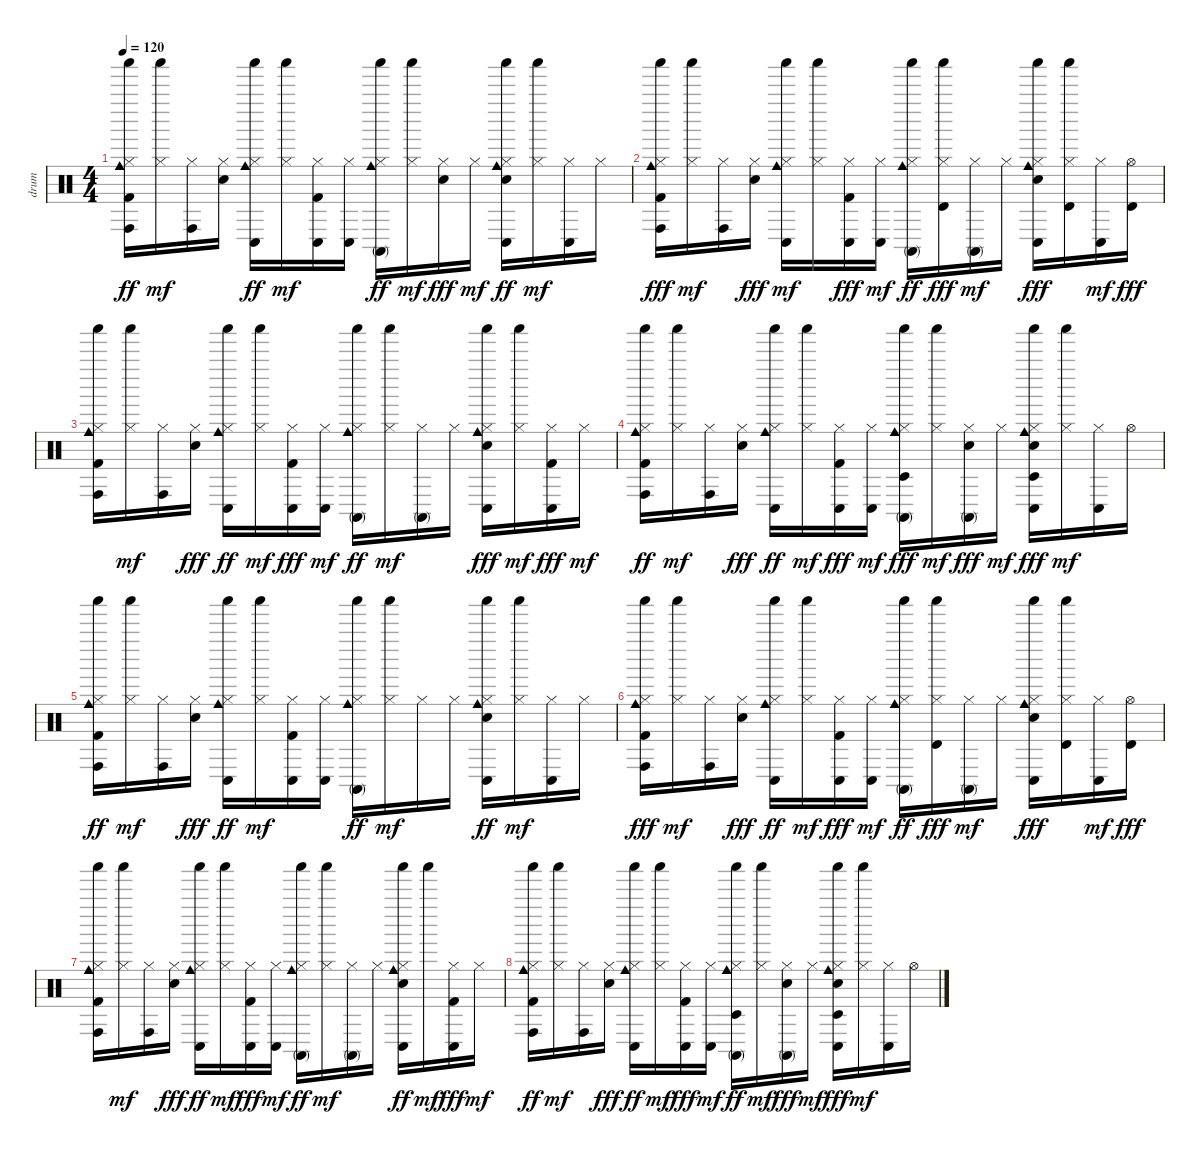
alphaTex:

\track ("drum" "drum") {instrument percussion}
\staff {score}
\articulation defaults
\ts (4 4)
\tempo 120
\clef neutral
\ks c
("Conga high (hit)" "Shaker (hit)" "Cowbell medium (hit)" "Kick (hit) 2" "Hi-Hat (closed)").16{dy ff} ("Shaker (hit)" "Hi-Hat (closed)").16{dy mf} ("Conga high (hit)" "Hi-Hat (closed)").16 ("Electric Snare (hit)" "Hi-Hat (closed)").16 ("Conga low (hit)" "Cowbell medium (hit)" "Shaker (hit)" "Hi-Hat (closed)").16{dy ff} ("Shaker (hit)" "Hi-Hat (closed)").16{dy mf} ("Conga low (hit)" "Kick (hit) 2" "Hi-Hat (closed)").16 ("Conga low (hit)" "Hi-Hat (closed)").16 ("Conga high (mute)" "Cowbell medium (hit)" "Shaker (hit)" "Hi-Hat (closed)").16{dy ff} ("Shaker (hit)" "Hi-Hat (closed)").16{dy mf} ("Hi-Hat (closed)" "Electric Snare (hit)").16{dy fff} "Hi-Hat (closed)".16{dy mf} ("Conga low (hit)" "Shaker (hit)" "Cowbell medium (hit)" "Electric Snare (hit)" "Hi-Hat (closed)").16{dy ff} ("Shaker (hit)" "Hi-Hat (closed)").16{dy mf} ("Conga low (hit)" "Hi-Hat (closed)").16 "Hi-Hat (closed)".16 |
("Conga high (hit)" "Shaker (hit)" "Cowbell medium (hit)" "Hi-Hat (closed)" "Kick (hit) 2").16{dy fff} ("Shaker (hit)" "Hi-Hat (closed)").16{dy mf} ("Conga high (hit)" "Hi-Hat (closed)").16 ("Hi-Hat (closed)" "Electric Snare (hit)").16{dy fff} ("Conga low (hit)" "Cowbell medium (hit)" "Hi-Hat (closed)" "Shaker (hit)").16{dy mf} ("Shaker (hit)" "Hi-Hat (closed)").16 ("Conga low (hit)" "Hi-Hat (closed)" "Kick (hit) 2").16{dy fff} ("Conga low (hit)" "Hi-Hat (closed)").16{dy mf} ("Conga high (mute)" "Cowbell medium (hit)" "Shaker (hit)" "Hi-Hat (closed)").16{dy ff} ("Hi-Hat (closed)" "Shaker (hit)" "Timbale high (hit)").16{dy fff} ("Conga high (mute)" "Hi-Hat (closed)").16{dy mf} "Hi-Hat (closed)".16 ("Conga low (hit)" "Cowbell medium (hit)" "Shaker (hit)" "Hi-Hat (closed)" "Electric Snare (hit)").16{dy fff} ("Shaker (hit)" "Hi-Hat (closed)" "Timbale high (hit)").16 ("Conga low (hit)" "Hi-Hat (closed)").16{dy mf} ("Hi-Hat (open)" "Timbale high (hit)").16{dy fff} |
("Conga high (hit)" "Shaker (hit)" "Cowbell medium (hit)" "Hi-Hat (closed)" "Kick (hit) 2").16 ("Shaker (hit)" "Hi-Hat (closed)").16{dy mf} ("Hi-Hat (closed)" "Conga high (hit)").16 ("Hi-Hat (closed)" "Electric Snare (hit)").16{dy fff} ("Cowbell medium (hit)" "Conga low (hit)" "Shaker (hit)" "Hi-Hat (closed)").16{dy ff} ("Shaker (hit)" "Hi-Hat (closed)").16{dy mf} ("Conga low (hit)" "Hi-Hat (closed)" "Kick (hit) 2").16{dy fff} ("Conga low (hit)" "Hi-Hat (closed)").16{dy mf} ("Conga high (mute)" "Shaker (hit)" "Cowbell medium (hit)" "Hi-Hat (closed)").16{dy ff} ("Shaker (hit)" "Hi-Hat (closed)").16{dy mf} ("Conga high (mute)" "Hi-Hat (closed)").16 "Hi-Hat (closed)".16 ("Conga low (hit)" "Cowbell medium (hit)" "Shaker (hit)" "Hi-Hat (closed)" "Electric Snare (hit)").16{dy fff} ("Shaker (hit)" "Hi-Hat (closed)").16{dy mf} ("Conga low (hit)" "Hi-Hat (closed)" "Kick (hit) 2").16{dy fff} "Hi-Hat (closed)".16{dy mf} |
("Conga high (hit)" "Cowbell medium (hit)" "Shaker (hit)" "Kick (hit) 2" "Hi-Hat (closed)").16{dy ff} ("Shaker (hit)" "Hi-Hat (closed)").16{dy mf} ("Conga high (hit)" "Hi-Hat (closed)").16 ("Hi-Hat (closed)" "Electric Snare (hit)").16{dy fff} ("Conga low (hit)" "Shaker (hit)" "Cowbell medium (hit)" "Hi-Hat (closed)").16{dy ff} ("Shaker (hit)" "Hi-Hat (closed)").16{dy mf} ("Conga low (hit)" "Hi-Hat (closed)" "Kick (hit) 2").16{dy fff} ("Conga low (hit)" "Hi-Hat (closed)").16{dy mf} ("Conga high (mute)" "Cowbell medium (hit)" "Hi-Hat (closed)" "Shaker (hit)" "Timbale low (hit)").16{dy fff} ("Shaker (hit)" "Hi-Hat (closed)").16{dy mf} ("Conga high (mute)" "Hi-Hat (closed)" "Electric Snare (hit)").16{dy fff} "Hi-Hat (closed)".16{dy mf} ("Conga low (hit)" "Hi-Hat (closed)" "Shaker (hit)" "Cowbell medium (hit)" "Electric Snare (hit)" "Timbale low (hit)").16{dy fff} ("Shaker (hit)" "Hi-Hat (closed)").16{dy mf} ("Conga low (hit)" "Hi-Hat (closed)").16 "Hi-Hat (open)".16 |
("Conga high (hit)" "Shaker (hit)" "Cowbell medium (hit)" "Kick (hit) 2" "Hi-Hat (closed)").16{dy ff} ("Shaker (hit)" "Hi-Hat (closed)").16{dy mf} ("Conga high (hit)" "Hi-Hat (closed)").16 ("Hi-Hat (closed)" "Electric Snare (hit)").16{dy fff} ("Conga low (hit)" "Cowbell medium (hit)" "Shaker (hit)" "Hi-Hat (closed)").16{dy ff} ("Shaker (hit)" "Hi-Hat (closed)").16{dy mf} ("Conga low (hit)" "Kick (hit) 2" "Hi-Hat (closed)").16 ("Conga low (hit)" "Hi-Hat (closed)").16 ("Conga high (mute)" "Shaker (hit)" "Cowbell medium (hit)" "Hi-Hat (closed)").16{dy ff} ("Shaker (hit)" "Hi-Hat (closed)").16{dy mf} "Hi-Hat (closed)".16 "Hi-Hat (closed)".16 ("Conga low (hit)" "Shaker (hit)" "Cowbell medium (hit)" "Electric Snare (hit)" "Hi-Hat (closed)").16{dy ff} ("Shaker (hit)" "Hi-Hat (closed)").16{dy mf} ("Conga low (hit)" "Hi-Hat (closed)").16 "Hi-Hat (closed)".16 |
("Conga high (hit)" "Shaker (hit)" "Cowbell medium (hit)" "Hi-Hat (closed)" "Kick (hit) 2").16{dy fff} ("Shaker (hit)" "Hi-Hat (closed)").16{dy mf} ("Conga high (hit)" "Hi-Hat (closed)").16 ("Hi-Hat (closed)" "Electric Snare (hit)").16{dy fff} ("Conga low (hit)" "Cowbell medium (hit)" "Shaker (hit)" "Hi-Hat (closed)").16{dy ff} ("Shaker (hit)" "Hi-Hat (closed)").16{dy mf} ("Conga low (hit)" "Hi-Hat (closed)" "Kick (hit) 2").16{dy fff} ("Conga low (hit)" "Hi-Hat (closed)").16{dy mf} ("Conga high (mute)" "Cowbell medium (hit)" "Shaker (hit)" "Hi-Hat (closed)").16{dy ff} ("Shaker (hit)" "Hi-Hat (closed)" "Timbale high (hit)").16{dy fff} ("Conga high (mute)" "Hi-Hat (closed)").16{dy mf} "Hi-Hat (closed)".16 ("Conga low (hit)" "Cowbell medium (hit)" "Shaker (hit)" "Hi-Hat (closed)" "Electric Snare (hit)").16{dy fff} ("Shaker (hit)" "Hi-Hat (closed)" "Timbale high (hit)").16 ("Conga low (hit)" "Hi-Hat (closed)").16{dy mf} ("Hi-Hat (open)" "Timbale high (hit)").16{dy fff} |
("Conga high (hit)" "Shaker (hit)" "Cowbell medium (hit)" "Hi-Hat (closed)" "Kick (hit) 2").16 ("Shaker (hit)" "Hi-Hat (closed)").16{dy mf} ("Hi-Hat (closed)" "Conga high (hit)").16 ("Hi-Hat (closed)" "Electric Snare (hit)").16{dy fff} ("Conga low (hit)" "Cowbell medium (hit)" "Shaker (hit)" "Hi-Hat (closed)").16{dy ff} ("Hi-Hat (closed)" "Shaker (hit)").16{dy mf} ("Conga low (hit)" "Hi-Hat (closed)" "Kick (hit) 2").16{dy fff} ("Hi-Hat (closed)" "Conga low (hit)").16{dy mf} ("Cowbell medium (hit)" "Conga high (mute)" "Shaker (hit)" "Hi-Hat (closed)").16{dy ff} ("Shaker (hit)" "Hi-Hat (closed)").16{dy mf} ("Conga high (mute)" "Hi-Hat (closed)").16 "Hi-Hat (closed)".16 ("Conga low (hit)" "Cowbell medium (hit)" "Shaker (hit)" "Electric Snare (hit)" "Hi-Hat (closed)").16{dy ff} "Shaker (hit)".16{dy mf} ("Conga low (hit)" "Hi-Hat (closed)" "Kick (hit) 2").16{dy fff} "Hi-Hat (closed)".16{dy mf} |
("Conga high (hit)" "Cowbell medium (hit)" "Shaker (hit)" "Kick (hit) 2" "Hi-Hat (closed)").16{dy ff} ("Shaker (hit)" "Hi-Hat (closed)").16{dy mf} ("Hi-Hat (closed)" "Conga high (hit)").16 ("Hi-Hat (closed)" "Electric Snare (hit)").16{dy fff} ("Conga low (hit)" "Cowbell medium (hit)" "Shaker (hit)" "Hi-Hat (closed)").16{dy ff} ("Shaker (hit)" "Hi-Hat (closed)").16{dy mf} ("Hi-Hat (closed)" "Conga low (hit)" "Kick (hit) 2").16{dy fff} ("Conga low (hit)" "Hi-Hat (closed)").16{dy mf} ("Conga high (mute)" "Cowbell medium (hit)" "Shaker (hit)" "Timbale low (hit)" "Hi-Hat (closed)").16{dy ff} ("Shaker (hit)" "Hi-Hat (closed)").16{dy mf} ("Hi-Hat (closed)" "Conga high (mute)" "Electric Snare (hit)").16{dy fff} "Hi-Hat (closed)".16{dy mf} ("Conga low (hit)" "Hi-Hat (closed)" "Shaker (hit)" "Cowbell medium (hit)" "Electric Snare (hit)" "Timbale low (hit)").16{dy fff} ("Shaker (hit)" "Hi-Hat (closed)").16{dy mf} ("Conga low (hit)" "Hi-Hat (closed)").16 "Hi-Hat (open)".16
